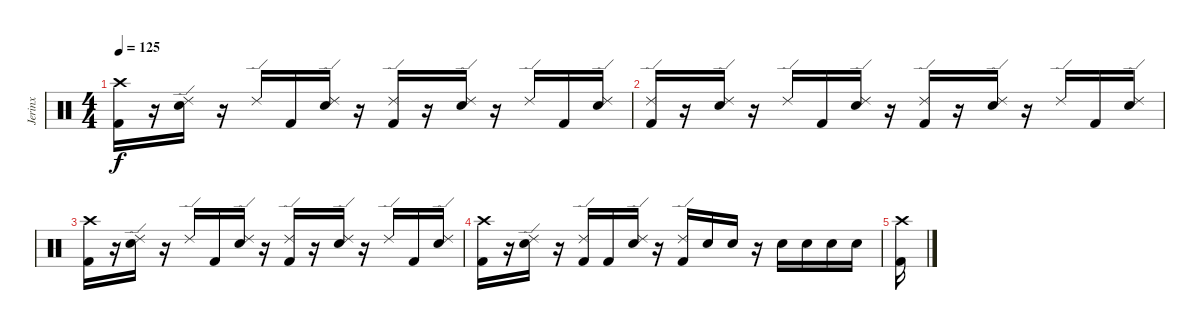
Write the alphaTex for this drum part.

\track ("Jerinx" "Jerinx") {instrument percussion}
\staff {score}
\articulation defaults
\ts (4 4)
\tempo 125
\clef neutral
\ks c
("Kick (hit) 2" "Crash high (hit)").16{dy f} r.16 ("Electric Snare (hit)" "Ride (edge) 2").16 r.16 "Ride (edge) 2".16 "Kick (hit) 2".16 ("Electric Snare (hit)" "Ride (edge) 2").16 r.16 ("Kick (hit) 2" "Ride (edge) 2").16 r.16 ("Electric Snare (hit)" "Ride (edge) 2").16 r.16 "Ride (edge) 2".16 "Kick (hit) 2".16 ("Electric Snare (hit)" "Ride (edge) 2").16 |
("Kick (hit) 2" "Ride (edge) 2").16 r.16 ("Electric Snare (hit)" "Ride (edge) 2").16 r.16 "Ride (edge) 2".16 "Kick (hit) 2".16 ("Electric Snare (hit)" "Ride (edge) 2").16 r.16 ("Kick (hit) 2" "Ride (edge) 2").16 r.16 ("Electric Snare (hit)" "Ride (edge) 2").16 r.16 "Ride (edge) 2".16 "Kick (hit) 2".16 ("Electric Snare (hit)" "Ride (edge) 2").16 |
("Kick (hit) 2" "Crash high (hit)").16 r.16 ("Electric Snare (hit)" "Ride (edge) 2").16 r.16 "Ride (edge) 2".16 "Kick (hit) 2".16 ("Electric Snare (hit)" "Ride (edge) 2").16 r.16 ("Kick (hit) 2" "Ride (edge) 2").16 r.16 ("Electric Snare (hit)" "Ride (edge) 2").16 r.16 "Ride (edge) 2".16 "Kick (hit) 2".16 ("Electric Snare (hit)" "Ride (edge) 2").16 |
("Kick (hit) 2" "Crash high (hit)").16 r.16 ("Electric Snare (hit)" "Ride (edge) 2").16 r.16 ("Kick (hit) 2" "Ride (edge) 2").16 "Kick (hit) 2".16 ("Electric Snare (hit)" "Ride (edge) 2").16 r.16 ("Kick (hit) 2" "Ride (edge) 2").16 "Electric Snare (hit)".16 "Electric Snare (hit)".16 r.16 "Electric Snare (hit)".16 "Electric Snare (hit)".16 "Electric Snare (hit)".16 "Electric Snare (hit)".16 |
("Kick (hit) 2" "Crash high (hit)").16
